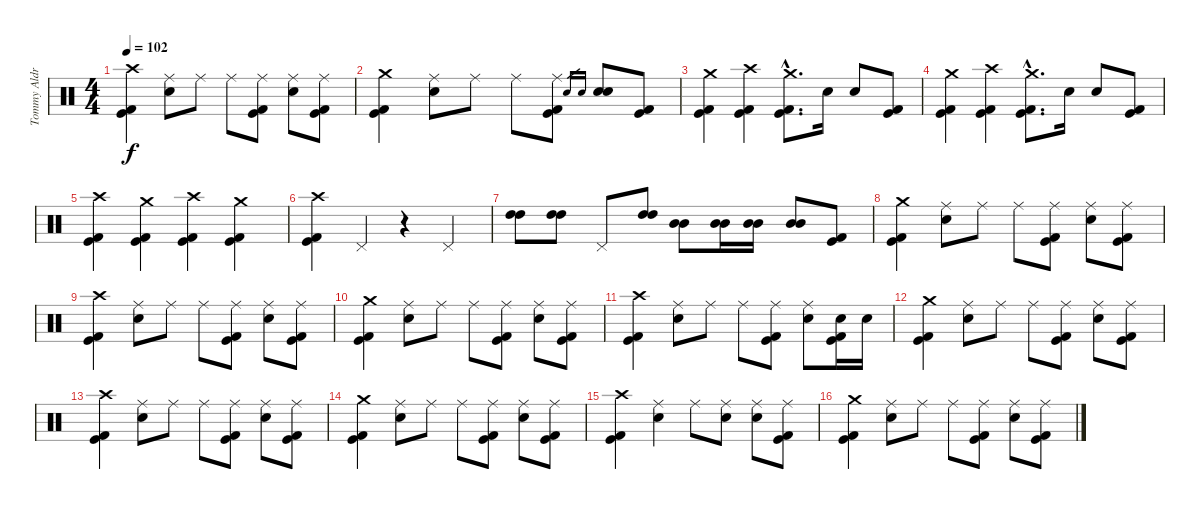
\track ("Tommy Aldridge" "Tommy Aldr") {instrument percussion}
\staff {score}
\articulation defaults
\ts (4 4)
\tempo 102
\clef neutral
\ks c
("Crash high (hit)" "Kick (hit)" "Kick (hit) 2").4{dy f} ("Ride (middle)" "Electric Snare (hit)").8 "Ride (middle)".8 "Ride (middle)".8 ("Ride (middle)" "Kick (hit)" "Kick (hit) 2").8 ("Ride (middle)" "Electric Snare (hit)").8 ("Ride (middle)" "Kick (hit)" "Kick (hit) 2").8 |
("Crash medium (hit)" "Kick (hit)" "Kick (hit) 2").4 ("Ride (middle)" "Electric Snare (hit)").8 "Ride (middle)".8 "Ride (middle)".8 ("Ride (middle)" "Kick (hit)" "Kick (hit) 2").8 "Electric Snare (hit)".16{gr} "Snare (hit) 2".16{gr} ("Electric Snare (hit)" "Snare (hit) 2").8 ("Kick (hit)" "Kick (hit) 2").8 |
("Crash medium (hit)" "Kick (hit)" "Kick (hit) 2").4 ("Crash high (hit)" "Kick (hit)" "Kick (hit) 2").4 ("Crash medium (hit)"{hac} "Kick (hit)"{hac} "Kick (hit) 2"{hac}).8{d} "Electric Snare (hit)".16 "Electric Snare (hit)".8 ("Kick (hit)" "Kick (hit) 2").8 |
("Crash medium (hit)" "Kick (hit)" "Kick (hit) 2").4 ("Crash high (hit)" "Kick (hit)" "Kick (hit) 2").4 ("Crash medium (hit)"{hac} "Kick (hit)"{hac} "Kick (hit) 2"{hac}).8{d} "Electric Snare (hit)".16 "Electric Snare (hit)".8 ("Kick (hit)" "Kick (hit) 2").8 |
("Crash high (hit)" "Kick (hit)" "Kick (hit) 2").4 ("Crash medium (hit)" "Kick (hit)" "Kick (hit) 2").4 ("Crash high (hit)" "Kick (hit)" "Kick (hit) 2").4 ("Crash medium (hit)" "Kick (hit)" "Kick (hit) 2").4 |
("Crash high (hit)" "Kick (hit)" "Kick (hit) 2").4 "Pedal Hi-Hat (hit)".4 r.4 "Pedal Hi-Hat (hit)".4 |
("High Tom (hit)" "High Tom (hit)").8 ("High Tom (hit)" "High Tom (hit)").8 "Pedal Hi-Hat (hit)".8 ("High Tom (hit)" "High Tom (hit)").8 ("Mid Tom (hit)" "Mid Tom (hit)").8 ("Mid Tom (hit)" "Mid Tom (hit)").16 ("Mid Tom (hit)" "Mid Tom (hit)").16 ("Mid Tom (hit)" "Mid Tom (hit)").8 ("Kick (hit)" "Kick (hit) 2").8 |
("Crash medium (hit)" "Kick (hit)" "Kick (hit) 2").4 ("Ride (middle)" "Electric Snare (hit)").8 "Ride (middle)".8 "Ride (middle)".8 ("Ride (middle)" "Kick (hit)" "Kick (hit) 2").8 ("Ride (middle)" "Electric Snare (hit)").8 ("Ride (middle)" "Kick (hit)" "Kick (hit) 2").8 |
("Crash high (hit)" "Kick (hit)" "Kick (hit) 2").4 ("Ride (middle)" "Electric Snare (hit)").8 "Ride (middle)".8 "Ride (middle)".8 ("Ride (middle)" "Kick (hit)" "Kick (hit) 2").8 ("Ride (middle)" "Electric Snare (hit)").8 ("Ride (middle)" "Kick (hit)" "Kick (hit) 2").8 |
("Crash medium (hit)" "Kick (hit)" "Kick (hit) 2").4 ("Ride (middle)" "Electric Snare (hit)").8 "Ride (middle)".8 "Ride (middle)".8 ("Ride (middle)" "Kick (hit)" "Kick (hit) 2").8 ("Ride (middle)" "Electric Snare (hit)").8 ("Ride (middle)" "Kick (hit)" "Kick (hit) 2").8 |
("Crash high (hit)" "Kick (hit)" "Kick (hit) 2").4 ("Ride (middle)" "Electric Snare (hit)").8 "Ride (middle)".8 "Ride (middle)".8 ("Ride (middle)" "Kick (hit)" "Kick (hit) 2").8 ("Ride (middle)" "Electric Snare (hit)").8 ("Electric Snare (hit)" "Kick (hit)" "Kick (hit) 2").16 "Electric Snare (hit)".16 |
("Crash medium (hit)" "Kick (hit)" "Kick (hit) 2").4 ("Ride (middle)" "Electric Snare (hit)").8 "Ride (middle)".8 "Ride (middle)".8 ("Ride (middle)" "Kick (hit)" "Kick (hit) 2").8 ("Ride (middle)" "Electric Snare (hit)").8 ("Ride (middle)" "Kick (hit)" "Kick (hit) 2").8 |
("Crash high (hit)" "Kick (hit)" "Kick (hit) 2").4 ("Ride (middle)" "Electric Snare (hit)").8 "Ride (middle)".8 "Ride (middle)".8 ("Ride (middle)" "Kick (hit)" "Kick (hit) 2").8 ("Ride (middle)" "Electric Snare (hit)").8 ("Ride (middle)" "Kick (hit)" "Kick (hit) 2").8 |
("Crash medium (hit)" "Kick (hit)" "Kick (hit) 2").4 ("Ride (middle)" "Electric Snare (hit)").8 "Ride (middle)".8 "Ride (middle)".8 ("Ride (middle)" "Kick (hit)" "Kick (hit) 2").8 ("Ride (middle)" "Electric Snare (hit)").8 ("Ride (middle)" "Kick (hit)" "Kick (hit) 2").8 |
("Crash high (hit)" "Kick (hit)" "Kick (hit) 2").4 ("Ride (middle)" "Electric Snare (hit)").4 "Ride (middle)".8 ("Ride (middle)" "Electric Snare (hit)").8 ("Ride (middle)" "Electric Snare (hit)").8 ("Ride (middle)" "Kick (hit)" "Kick (hit) 2").8 |
("Crash medium (hit)" "Kick (hit)" "Kick (hit) 2").4 ("Ride (middle)" "Electric Snare (hit)").8 "Ride (middle)".8 "Ride (middle)".8 ("Ride (middle)" "Kick (hit)" "Kick (hit) 2").8 ("Ride (middle)" "Electric Snare (hit)").8 ("Ride (middle)" "Kick (hit)" "Kick (hit) 2").8
